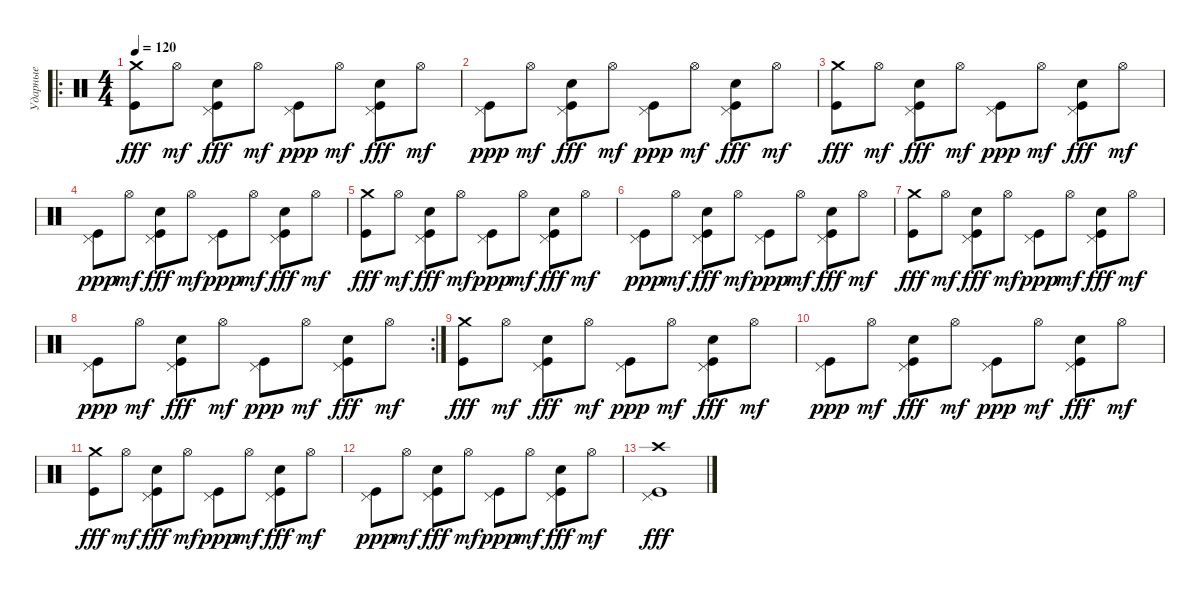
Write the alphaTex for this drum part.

\track ("Ударные" "Ударные") {instrument percussion}
\staff {score}
\articulation defaults
\ro
\ts (4 4)
\tempo 120
\clef neutral
\ks c
("Kick (hit)" "Crash medium (hit)").8{dy fff} "Hi-Hat (open)".8{dy mf} ("Kick (hit)" "Pedal Hi-Hat (hit)" "Electric Snare (hit)").8{dy fff} "Hi-Hat (open)".8{dy mf} ("Kick (hit)" "Pedal Hi-Hat (hit)").8{dy ppp} "Hi-Hat (open)".8{dy mf} ("Kick (hit)" "Pedal Hi-Hat (hit)" "Electric Snare (hit)").8{dy fff} "Hi-Hat (open)".8{dy mf} |
("Kick (hit)" "Pedal Hi-Hat (hit)").8{dy ppp} "Hi-Hat (open)".8{dy mf} ("Kick (hit)" "Pedal Hi-Hat (hit)" "Electric Snare (hit)").8{dy fff} "Hi-Hat (open)".8{dy mf} ("Kick (hit)" "Pedal Hi-Hat (hit)").8{dy ppp} "Hi-Hat (open)".8{dy mf} ("Kick (hit)" "Pedal Hi-Hat (hit)" "Electric Snare (hit)").8{dy fff} "Hi-Hat (open)".8{dy mf} |
("Kick (hit)" "Crash medium (hit)").8{dy fff} "Hi-Hat (open)".8{dy mf} ("Kick (hit)" "Pedal Hi-Hat (hit)" "Electric Snare (hit)").8{dy fff} "Hi-Hat (open)".8{dy mf} ("Kick (hit)" "Pedal Hi-Hat (hit)").8{dy ppp} "Hi-Hat (open)".8{dy mf} ("Kick (hit)" "Pedal Hi-Hat (hit)" "Electric Snare (hit)").8{dy fff} "Hi-Hat (open)".8{dy mf} |
("Kick (hit)" "Pedal Hi-Hat (hit)").8{dy ppp} "Hi-Hat (open)".8{dy mf} ("Kick (hit)" "Pedal Hi-Hat (hit)" "Electric Snare (hit)").8{dy fff} "Hi-Hat (open)".8{dy mf} ("Kick (hit)" "Pedal Hi-Hat (hit)").8{dy ppp} "Hi-Hat (open)".8{dy mf} ("Kick (hit)" "Pedal Hi-Hat (hit)" "Electric Snare (hit)").8{dy fff} "Hi-Hat (open)".8{dy mf} |
("Kick (hit)" "Crash medium (hit)").8{dy fff} "Hi-Hat (open)".8{dy mf} ("Kick (hit)" "Pedal Hi-Hat (hit)" "Electric Snare (hit)").8{dy fff} "Hi-Hat (open)".8{dy mf} ("Kick (hit)" "Pedal Hi-Hat (hit)").8{dy ppp} "Hi-Hat (open)".8{dy mf} ("Kick (hit)" "Pedal Hi-Hat (hit)" "Electric Snare (hit)").8{dy fff} "Hi-Hat (open)".8{dy mf} |
("Kick (hit)" "Pedal Hi-Hat (hit)").8{dy ppp} "Hi-Hat (open)".8{dy mf} ("Kick (hit)" "Pedal Hi-Hat (hit)" "Electric Snare (hit)").8{dy fff} "Hi-Hat (open)".8{dy mf} ("Kick (hit)" "Pedal Hi-Hat (hit)").8{dy ppp} "Hi-Hat (open)".8{dy mf} ("Kick (hit)" "Pedal Hi-Hat (hit)" "Electric Snare (hit)").8{dy fff} "Hi-Hat (open)".8{dy mf} |
("Kick (hit)" "Crash medium (hit)").8{dy fff} "Hi-Hat (open)".8{dy mf} ("Kick (hit)" "Pedal Hi-Hat (hit)" "Electric Snare (hit)").8{dy fff} "Hi-Hat (open)".8{dy mf} ("Kick (hit)" "Pedal Hi-Hat (hit)").8{dy ppp} "Hi-Hat (open)".8{dy mf} ("Kick (hit)" "Pedal Hi-Hat (hit)" "Electric Snare (hit)").8{dy fff} "Hi-Hat (open)".8{dy mf} |
\rc 2
("Kick (hit)" "Pedal Hi-Hat (hit)").8{dy ppp} "Hi-Hat (open)".8{dy mf} ("Kick (hit)" "Pedal Hi-Hat (hit)" "Electric Snare (hit)").8{dy fff} "Hi-Hat (open)".8{dy mf} ("Kick (hit)" "Pedal Hi-Hat (hit)").8{dy ppp} "Hi-Hat (open)".8{dy mf} ("Kick (hit)" "Pedal Hi-Hat (hit)" "Electric Snare (hit)").8{dy fff} "Hi-Hat (open)".8{dy mf} |
("Kick (hit)" "Crash medium (hit)").8{dy fff} "Hi-Hat (open)".8{dy mf} ("Kick (hit)" "Pedal Hi-Hat (hit)" "Electric Snare (hit)").8{dy fff} "Hi-Hat (open)".8{dy mf} ("Kick (hit)" "Pedal Hi-Hat (hit)").8{dy ppp} "Hi-Hat (open)".8{dy mf} ("Kick (hit)" "Pedal Hi-Hat (hit)" "Electric Snare (hit)").8{dy fff} "Hi-Hat (open)".8{dy mf} |
("Kick (hit)" "Pedal Hi-Hat (hit)").8{dy ppp} "Hi-Hat (open)".8{dy mf} ("Kick (hit)" "Pedal Hi-Hat (hit)" "Electric Snare (hit)").8{dy fff} "Hi-Hat (open)".8{dy mf} ("Kick (hit)" "Pedal Hi-Hat (hit)").8{dy ppp} "Hi-Hat (open)".8{dy mf} ("Kick (hit)" "Pedal Hi-Hat (hit)" "Electric Snare (hit)").8{dy fff} "Hi-Hat (open)".8{dy mf} |
("Kick (hit)" "Crash medium (hit)").8{dy fff} "Hi-Hat (open)".8{dy mf} ("Kick (hit)" "Pedal Hi-Hat (hit)" "Electric Snare (hit)").8{dy fff} "Hi-Hat (open)".8{dy mf} ("Kick (hit)" "Pedal Hi-Hat (hit)").8{dy ppp} "Hi-Hat (open)".8{dy mf} ("Kick (hit)" "Pedal Hi-Hat (hit)" "Electric Snare (hit)").8{dy fff} "Hi-Hat (open)".8{dy mf} |
("Kick (hit)" "Pedal Hi-Hat (hit)").8{dy ppp} "Hi-Hat (open)".8{dy mf} ("Kick (hit)" "Pedal Hi-Hat (hit)" "Electric Snare (hit)").8{dy fff} "Hi-Hat (open)".8{dy mf} ("Kick (hit)" "Pedal Hi-Hat (hit)").8{dy ppp} "Hi-Hat (open)".8{dy mf} ("Kick (hit)" "Pedal Hi-Hat (hit)" "Electric Snare (hit)").8{dy fff} "Hi-Hat (open)".8{dy mf} |
("Kick (hit)" "Pedal Hi-Hat (hit)" "Crash high (hit)").1{dy fff}
